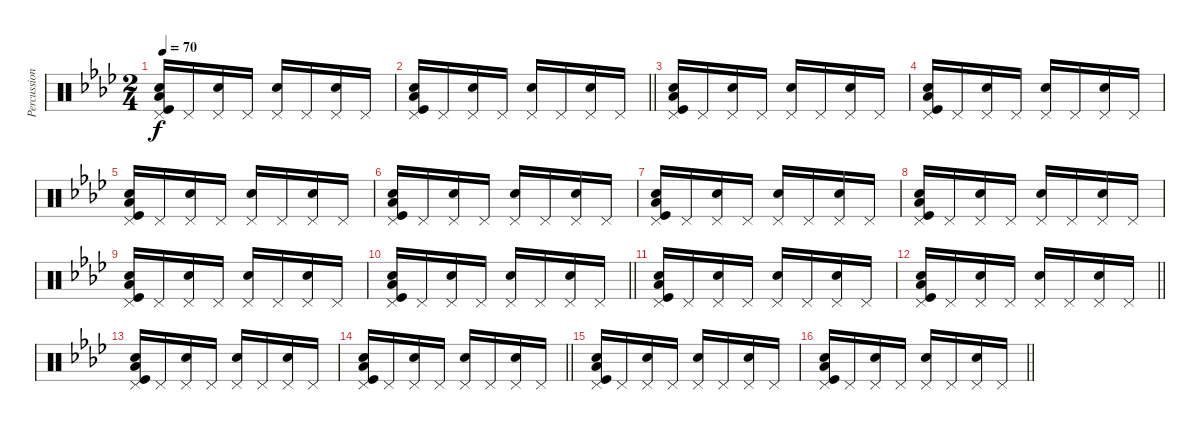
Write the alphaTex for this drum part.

\track ("Percussions" "Percussion") {instrument percussion}
\staff {score}
\articulation defaults
\ts (2 4)
\tempo 70
\clef neutral
\ks fminor
("Electric Snare (hit)" "Kick (hit)" "Pedal Hi-Hat (hit)" "Low Floor Tom (hit)").16{dy f} "Pedal Hi-Hat (hit)".16 ("Electric Snare (hit)" "Pedal Hi-Hat (hit)").16 "Pedal Hi-Hat (hit)".16 ("Electric Snare (hit)" "Pedal Hi-Hat (hit)").16 "Pedal Hi-Hat (hit)".16 ("Electric Snare (hit)" "Pedal Hi-Hat (hit)").16 "Pedal Hi-Hat (hit)".16 |
\barLineRight lightlight
("Electric Snare (hit)" "Kick (hit)" "Pedal Hi-Hat (hit)" "Low Floor Tom (hit)").16 "Pedal Hi-Hat (hit)".16 ("Electric Snare (hit)" "Pedal Hi-Hat (hit)").16 "Pedal Hi-Hat (hit)".16 ("Electric Snare (hit)" "Pedal Hi-Hat (hit)").16 "Pedal Hi-Hat (hit)".16 ("Electric Snare (hit)" "Pedal Hi-Hat (hit)").16 "Pedal Hi-Hat (hit)".16 |
("Electric Snare (hit)" "Kick (hit)" "Pedal Hi-Hat (hit)" "Low Floor Tom (hit)").16 "Pedal Hi-Hat (hit)".16 ("Electric Snare (hit)" "Pedal Hi-Hat (hit)").16 "Pedal Hi-Hat (hit)".16 ("Electric Snare (hit)" "Pedal Hi-Hat (hit)").16 "Pedal Hi-Hat (hit)".16 ("Electric Snare (hit)" "Pedal Hi-Hat (hit)").16 "Pedal Hi-Hat (hit)".16 |
("Electric Snare (hit)" "Kick (hit)" "Pedal Hi-Hat (hit)" "Low Floor Tom (hit)").16 "Pedal Hi-Hat (hit)".16 ("Electric Snare (hit)" "Pedal Hi-Hat (hit)").16 "Pedal Hi-Hat (hit)".16 ("Electric Snare (hit)" "Pedal Hi-Hat (hit)").16 "Pedal Hi-Hat (hit)".16 ("Electric Snare (hit)" "Pedal Hi-Hat (hit)").16 "Pedal Hi-Hat (hit)".16 |
("Electric Snare (hit)" "Kick (hit)" "Pedal Hi-Hat (hit)" "Low Floor Tom (hit)").16 "Pedal Hi-Hat (hit)".16 ("Electric Snare (hit)" "Pedal Hi-Hat (hit)").16 "Pedal Hi-Hat (hit)".16 ("Electric Snare (hit)" "Pedal Hi-Hat (hit)").16 "Pedal Hi-Hat (hit)".16 ("Electric Snare (hit)" "Pedal Hi-Hat (hit)").16 "Pedal Hi-Hat (hit)".16 |
("Electric Snare (hit)" "Kick (hit)" "Pedal Hi-Hat (hit)" "Low Floor Tom (hit)").16 "Pedal Hi-Hat (hit)".16 ("Electric Snare (hit)" "Pedal Hi-Hat (hit)").16 "Pedal Hi-Hat (hit)".16 ("Electric Snare (hit)" "Pedal Hi-Hat (hit)").16 "Pedal Hi-Hat (hit)".16 ("Electric Snare (hit)" "Pedal Hi-Hat (hit)").16 "Pedal Hi-Hat (hit)".16 |
("Electric Snare (hit)" "Kick (hit)" "Pedal Hi-Hat (hit)" "Low Floor Tom (hit)").16 "Pedal Hi-Hat (hit)".16 ("Electric Snare (hit)" "Pedal Hi-Hat (hit)").16 "Pedal Hi-Hat (hit)".16 ("Electric Snare (hit)" "Pedal Hi-Hat (hit)").16 "Pedal Hi-Hat (hit)".16 ("Electric Snare (hit)" "Pedal Hi-Hat (hit)").16 "Pedal Hi-Hat (hit)".16 |
("Electric Snare (hit)" "Kick (hit)" "Pedal Hi-Hat (hit)" "Low Floor Tom (hit)").16 "Pedal Hi-Hat (hit)".16 ("Electric Snare (hit)" "Pedal Hi-Hat (hit)").16 "Pedal Hi-Hat (hit)".16 ("Electric Snare (hit)" "Pedal Hi-Hat (hit)").16 "Pedal Hi-Hat (hit)".16 ("Electric Snare (hit)" "Pedal Hi-Hat (hit)").16 "Pedal Hi-Hat (hit)".16 |
("Electric Snare (hit)" "Kick (hit)" "Pedal Hi-Hat (hit)" "Low Floor Tom (hit)").16 "Pedal Hi-Hat (hit)".16 ("Electric Snare (hit)" "Pedal Hi-Hat (hit)").16 "Pedal Hi-Hat (hit)".16 ("Electric Snare (hit)" "Pedal Hi-Hat (hit)").16 "Pedal Hi-Hat (hit)".16 ("Electric Snare (hit)" "Pedal Hi-Hat (hit)").16 "Pedal Hi-Hat (hit)".16 |
\barLineRight lightlight
("Electric Snare (hit)" "Kick (hit)" "Pedal Hi-Hat (hit)" "Low Floor Tom (hit)").16 "Pedal Hi-Hat (hit)".16 ("Electric Snare (hit)" "Pedal Hi-Hat (hit)").16 "Pedal Hi-Hat (hit)".16 ("Electric Snare (hit)" "Pedal Hi-Hat (hit)").16 "Pedal Hi-Hat (hit)".16 ("Electric Snare (hit)" "Pedal Hi-Hat (hit)").16 "Pedal Hi-Hat (hit)".16 |
("Electric Snare (hit)" "Kick (hit)" "Pedal Hi-Hat (hit)" "Low Floor Tom (hit)").16 "Pedal Hi-Hat (hit)".16 ("Electric Snare (hit)" "Pedal Hi-Hat (hit)").16 "Pedal Hi-Hat (hit)".16 ("Electric Snare (hit)" "Pedal Hi-Hat (hit)").16 "Pedal Hi-Hat (hit)".16 ("Electric Snare (hit)" "Pedal Hi-Hat (hit)").16 "Pedal Hi-Hat (hit)".16 |
\barLineRight lightlight
("Electric Snare (hit)" "Kick (hit)" "Pedal Hi-Hat (hit)" "Low Floor Tom (hit)").16 "Pedal Hi-Hat (hit)".16 ("Electric Snare (hit)" "Pedal Hi-Hat (hit)").16 "Pedal Hi-Hat (hit)".16 ("Electric Snare (hit)" "Pedal Hi-Hat (hit)").16 "Pedal Hi-Hat (hit)".16 ("Electric Snare (hit)" "Pedal Hi-Hat (hit)").16 "Pedal Hi-Hat (hit)".16 |
("Electric Snare (hit)" "Kick (hit)" "Pedal Hi-Hat (hit)" "Low Floor Tom (hit)").16 "Pedal Hi-Hat (hit)".16 ("Electric Snare (hit)" "Pedal Hi-Hat (hit)").16 "Pedal Hi-Hat (hit)".16 ("Electric Snare (hit)" "Pedal Hi-Hat (hit)").16 "Pedal Hi-Hat (hit)".16 ("Electric Snare (hit)" "Pedal Hi-Hat (hit)").16 "Pedal Hi-Hat (hit)".16 |
\barLineRight lightlight
("Electric Snare (hit)" "Kick (hit)" "Pedal Hi-Hat (hit)" "Low Floor Tom (hit)").16 "Pedal Hi-Hat (hit)".16 ("Electric Snare (hit)" "Pedal Hi-Hat (hit)").16 "Pedal Hi-Hat (hit)".16 ("Electric Snare (hit)" "Pedal Hi-Hat (hit)").16 "Pedal Hi-Hat (hit)".16 ("Electric Snare (hit)" "Pedal Hi-Hat (hit)").16 "Pedal Hi-Hat (hit)".16 |
("Electric Snare (hit)" "Kick (hit)" "Pedal Hi-Hat (hit)" "Low Floor Tom (hit)").16 "Pedal Hi-Hat (hit)".16 ("Electric Snare (hit)" "Pedal Hi-Hat (hit)").16 "Pedal Hi-Hat (hit)".16 ("Electric Snare (hit)" "Pedal Hi-Hat (hit)").16 "Pedal Hi-Hat (hit)".16 ("Electric Snare (hit)" "Pedal Hi-Hat (hit)").16 "Pedal Hi-Hat (hit)".16 |
\barLineRight lightlight
("Electric Snare (hit)" "Kick (hit)" "Pedal Hi-Hat (hit)" "Low Floor Tom (hit)").16 "Pedal Hi-Hat (hit)".16 ("Electric Snare (hit)" "Pedal Hi-Hat (hit)").16 "Pedal Hi-Hat (hit)".16 ("Electric Snare (hit)" "Pedal Hi-Hat (hit)").16 "Pedal Hi-Hat (hit)".16 ("Electric Snare (hit)" "Pedal Hi-Hat (hit)").16 "Pedal Hi-Hat (hit)".16
